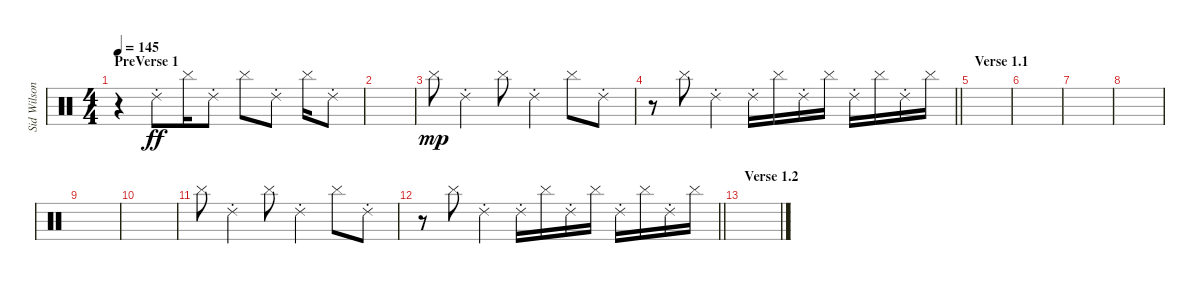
\track ("Sid Wilson" "Sid Wilson") {instrument percussion}
\staff {score}
\articulation defaults
\ts (4 4)
\section ("" "PreVerse 1")
\tempo 145
\clef neutral
\ks c
r.4{dy mp} "Ride (choke) 2".8{dy ff} "Cymbal (hit)".16 "Ride (choke) 2".8 "Cymbal (hit)".8 "Ride (choke) 2".8 "Cymbal (hit)".16 "Ride (choke) 2".8 |
|
"Cymbal (hit)".8{dy mp} "Ride (choke) 2".4 "Cymbal (hit)".8 "Ride (choke) 2".4 "Cymbal (hit)".8 "Ride (choke) 2".8 |
\barLineRight lightlight
r.8 "Cymbal (hit)".8 "Ride (choke) 2".4 "Ride (choke) 2".16 "Cymbal (hit)".16 "Ride (choke) 2".16 "Cymbal (hit)".16 "Ride (choke) 2".16 "Cymbal (hit)".16 "Ride (choke) 2".16 "Cymbal (hit)".16 |
\section ("" "Verse 1.1")
|
|
|
|
|
|
"Cymbal (hit)".8 "Ride (choke) 2".4 "Cymbal (hit)".8 "Ride (choke) 2".4 "Cymbal (hit)".8 "Ride (choke) 2".8 |
\barLineRight lightlight
r.8 "Cymbal (hit)".8 "Ride (choke) 2".4 "Ride (choke) 2".16 "Cymbal (hit)".16 "Ride (choke) 2".16 "Cymbal (hit)".16 "Ride (choke) 2".16 "Cymbal (hit)".16 "Ride (choke) 2".16 "Cymbal (hit)".16 |
\section ("" "Verse 1.2")
